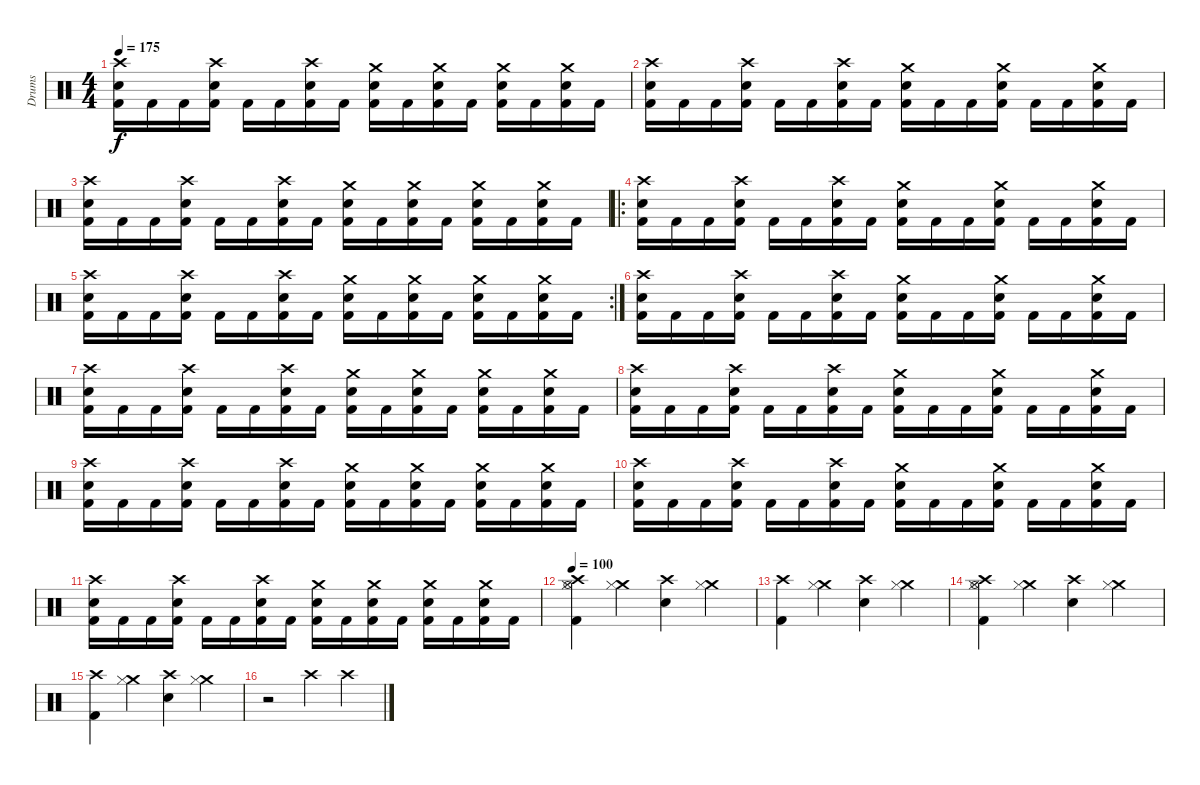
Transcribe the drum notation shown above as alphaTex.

\track ("Drums" "Drums") {instrument percussion}
\staff {score}
\articulation defaults
\ts (4 4)
\tempo 175
\clef neutral
\ks c
("Crash high (hit)" "Snare (hit) 2" "Kick (hit) 2").16{dy f} "Kick (hit) 2".16 "Kick (hit) 2".16 ("Crash high (hit)" "Snare (hit) 2" "Kick (hit) 2").16 "Kick (hit) 2".16 "Kick (hit) 2".16 ("Crash high (hit)" "Snare (hit) 2" "Kick (hit) 2").16 "Kick (hit) 2".16 ("Crash medium (hit)" "Snare (hit) 2" "Kick (hit) 2").16 "Kick (hit) 2".16 ("Crash medium (hit)" "Snare (hit) 2" "Kick (hit) 2").16 "Kick (hit) 2".16 ("Crash medium (hit)" "Snare (hit) 2" "Kick (hit) 2").16 "Kick (hit) 2".16 ("Crash medium (hit)" "Snare (hit) 2" "Kick (hit) 2").16 "Kick (hit) 2".16 |
("Crash high (hit)" "Snare (hit) 2" "Kick (hit) 2").16 "Kick (hit) 2".16 "Kick (hit) 2".16 ("Crash high (hit)" "Snare (hit) 2" "Kick (hit) 2").16 "Kick (hit) 2".16 "Kick (hit) 2".16 ("Crash high (hit)" "Snare (hit) 2" "Kick (hit) 2").16 "Kick (hit) 2".16 ("Crash medium (hit)" "Snare (hit) 2" "Kick (hit) 2").16 "Kick (hit) 2".16 "Kick (hit) 2".16 ("Crash medium (hit)" "Snare (hit) 2" "Kick (hit) 2").16 "Kick (hit) 2".16 "Kick (hit) 2".16 ("Crash medium (hit)" "Snare (hit) 2" "Kick (hit) 2").16 "Kick (hit) 2".16 |
("Crash high (hit)" "Snare (hit) 2" "Kick (hit) 2").16 "Kick (hit) 2".16 "Kick (hit) 2".16 ("Crash high (hit)" "Snare (hit) 2" "Kick (hit) 2").16 "Kick (hit) 2".16 "Kick (hit) 2".16 ("Crash high (hit)" "Snare (hit) 2" "Kick (hit) 2").16 "Kick (hit) 2".16 ("Crash medium (hit)" "Snare (hit) 2" "Kick (hit) 2").16 "Kick (hit) 2".16 ("Crash medium (hit)" "Snare (hit) 2" "Kick (hit) 2").16 "Kick (hit) 2".16 ("Crash medium (hit)" "Snare (hit) 2" "Kick (hit) 2").16 "Kick (hit) 2".16 ("Crash medium (hit)" "Snare (hit) 2" "Kick (hit) 2").16 "Kick (hit) 2".16 |
\ro
("Crash high (hit)" "Snare (hit) 2" "Kick (hit) 2").16 "Kick (hit) 2".16 "Kick (hit) 2".16 ("Crash high (hit)" "Snare (hit) 2" "Kick (hit) 2").16 "Kick (hit) 2".16 "Kick (hit) 2".16 ("Crash high (hit)" "Snare (hit) 2" "Kick (hit) 2").16 "Kick (hit) 2".16 ("Crash medium (hit)" "Snare (hit) 2" "Kick (hit) 2").16 "Kick (hit) 2".16 "Kick (hit) 2".16 ("Crash medium (hit)" "Snare (hit) 2" "Kick (hit) 2").16 "Kick (hit) 2".16 "Kick (hit) 2".16 ("Crash medium (hit)" "Snare (hit) 2" "Kick (hit) 2").16 "Kick (hit) 2".16 |
\rc 2
("Crash high (hit)" "Snare (hit) 2" "Kick (hit) 2").16 "Kick (hit) 2".16 "Kick (hit) 2".16 ("Crash high (hit)" "Snare (hit) 2" "Kick (hit) 2").16 "Kick (hit) 2".16 "Kick (hit) 2".16 ("Crash high (hit)" "Snare (hit) 2" "Kick (hit) 2").16 "Kick (hit) 2".16 ("Crash medium (hit)" "Snare (hit) 2" "Kick (hit) 2").16 "Kick (hit) 2".16 ("Crash medium (hit)" "Snare (hit) 2" "Kick (hit) 2").16 "Kick (hit) 2".16 ("Crash medium (hit)" "Snare (hit) 2" "Kick (hit) 2").16 "Kick (hit) 2".16 ("Crash medium (hit)" "Snare (hit) 2" "Kick (hit) 2").16 "Kick (hit) 2".16 |
("Crash high (hit)" "Snare (hit) 2" "Kick (hit) 2").16 "Kick (hit) 2".16 "Kick (hit) 2".16 ("Crash high (hit)" "Snare (hit) 2" "Kick (hit) 2").16 "Kick (hit) 2".16 "Kick (hit) 2".16 ("Crash high (hit)" "Snare (hit) 2" "Kick (hit) 2").16 "Kick (hit) 2".16 ("Crash medium (hit)" "Snare (hit) 2" "Kick (hit) 2").16 "Kick (hit) 2".16 "Kick (hit) 2".16 ("Crash medium (hit)" "Snare (hit) 2" "Kick (hit) 2").16 "Kick (hit) 2".16 "Kick (hit) 2".16 ("Crash medium (hit)" "Snare (hit) 2" "Kick (hit) 2").16 "Kick (hit) 2".16 |
("Crash high (hit)" "Snare (hit) 2" "Kick (hit) 2").16 "Kick (hit) 2".16 "Kick (hit) 2".16 ("Crash high (hit)" "Snare (hit) 2" "Kick (hit) 2").16 "Kick (hit) 2".16 "Kick (hit) 2".16 ("Crash high (hit)" "Snare (hit) 2" "Kick (hit) 2").16 "Kick (hit) 2".16 ("Crash medium (hit)" "Snare (hit) 2" "Kick (hit) 2").16 "Kick (hit) 2".16 ("Crash medium (hit)" "Snare (hit) 2" "Kick (hit) 2").16 "Kick (hit) 2".16 ("Crash medium (hit)" "Snare (hit) 2" "Kick (hit) 2").16 "Kick (hit) 2".16 ("Crash medium (hit)" "Snare (hit) 2" "Kick (hit) 2").16 "Kick (hit) 2".16 |
("Crash high (hit)" "Snare (hit) 2" "Kick (hit) 2").16 "Kick (hit) 2".16 "Kick (hit) 2".16 ("Crash high (hit)" "Snare (hit) 2" "Kick (hit) 2").16 "Kick (hit) 2".16 "Kick (hit) 2".16 ("Crash high (hit)" "Snare (hit) 2" "Kick (hit) 2").16 "Kick (hit) 2".16 ("Crash medium (hit)" "Snare (hit) 2" "Kick (hit) 2").16 "Kick (hit) 2".16 "Kick (hit) 2".16 ("Crash medium (hit)" "Snare (hit) 2" "Kick (hit) 2").16 "Kick (hit) 2".16 "Kick (hit) 2".16 ("Crash medium (hit)" "Snare (hit) 2" "Kick (hit) 2").16 "Kick (hit) 2".16 |
("Crash high (hit)" "Snare (hit) 2" "Kick (hit) 2").16 "Kick (hit) 2".16 "Kick (hit) 2".16 ("Crash high (hit)" "Snare (hit) 2" "Kick (hit) 2").16 "Kick (hit) 2".16 "Kick (hit) 2".16 ("Crash high (hit)" "Snare (hit) 2" "Kick (hit) 2").16 "Kick (hit) 2".16 ("Crash medium (hit)" "Snare (hit) 2" "Kick (hit) 2").16 "Kick (hit) 2".16 ("Crash medium (hit)" "Snare (hit) 2" "Kick (hit) 2").16 "Kick (hit) 2".16 ("Crash medium (hit)" "Snare (hit) 2" "Kick (hit) 2").16 "Kick (hit) 2".16 ("Crash medium (hit)" "Snare (hit) 2" "Kick (hit) 2").16 "Kick (hit) 2".16 |
("Crash high (hit)" "Snare (hit) 2" "Kick (hit) 2").16 "Kick (hit) 2".16 "Kick (hit) 2".16 ("Crash high (hit)" "Snare (hit) 2" "Kick (hit) 2").16 "Kick (hit) 2".16 "Kick (hit) 2".16 ("Crash high (hit)" "Snare (hit) 2" "Kick (hit) 2").16 "Kick (hit) 2".16 ("Crash medium (hit)" "Snare (hit) 2" "Kick (hit) 2").16 "Kick (hit) 2".16 "Kick (hit) 2".16 ("Crash medium (hit)" "Snare (hit) 2" "Kick (hit) 2").16 "Kick (hit) 2".16 "Kick (hit) 2".16 ("Crash medium (hit)" "Snare (hit) 2" "Kick (hit) 2").16 "Kick (hit) 2".16 |
("Crash high (hit)" "Snare (hit) 2" "Kick (hit) 2").16 "Kick (hit) 2".16 "Kick (hit) 2".16 ("Crash high (hit)" "Snare (hit) 2" "Kick (hit) 2").16 "Kick (hit) 2".16 "Kick (hit) 2".16 ("Crash high (hit)" "Snare (hit) 2" "Kick (hit) 2").16 "Kick (hit) 2".16 ("Crash medium (hit)" "Snare (hit) 2" "Kick (hit) 2").16 "Kick (hit) 2".16 ("Crash medium (hit)" "Snare (hit) 2" "Kick (hit) 2").16 "Kick (hit) 2".16 ("Crash medium (hit)" "Snare (hit) 2" "Kick (hit) 2").16 "Kick (hit) 2".16 ("Crash medium (hit)" "Snare (hit) 2" "Kick (hit) 2").16 "Kick (hit) 2".16 |
\tempo 100
("Crash high (hit)" "Hi-Hat (closed)" "Hi-Hat (open)" "Kick (hit) 2").4 ("Crash medium (hit)" "Hi-Hat (closed)").4 ("Crash high (hit)" "Snare (hit) 2").4 ("Crash medium (hit)" "Hi-Hat (closed)").4 |
("Crash high (hit)" "Kick (hit) 2").4 ("Crash medium (hit)" "Hi-Hat (closed)").4 ("Crash high (hit)" "Snare (hit) 2").4 ("Crash medium (hit)" "Hi-Hat (closed)").4 |
("Crash high (hit)" "Hi-Hat (closed)" "Hi-Hat (open)" "Kick (hit) 2").4 ("Crash medium (hit)" "Hi-Hat (closed)").4 ("Crash high (hit)" "Snare (hit) 2").4 ("Crash medium (hit)" "Hi-Hat (closed)").4 |
("Crash high (hit)" "Kick (hit) 2").4 ("Crash medium (hit)" "Hi-Hat (closed)").4 ("Crash high (hit)" "Snare (hit) 2").4 ("Crash medium (hit)" "Hi-Hat (closed)").4 |
r.2 "Crash high (hit)".4 "Crash high (hit)".4
